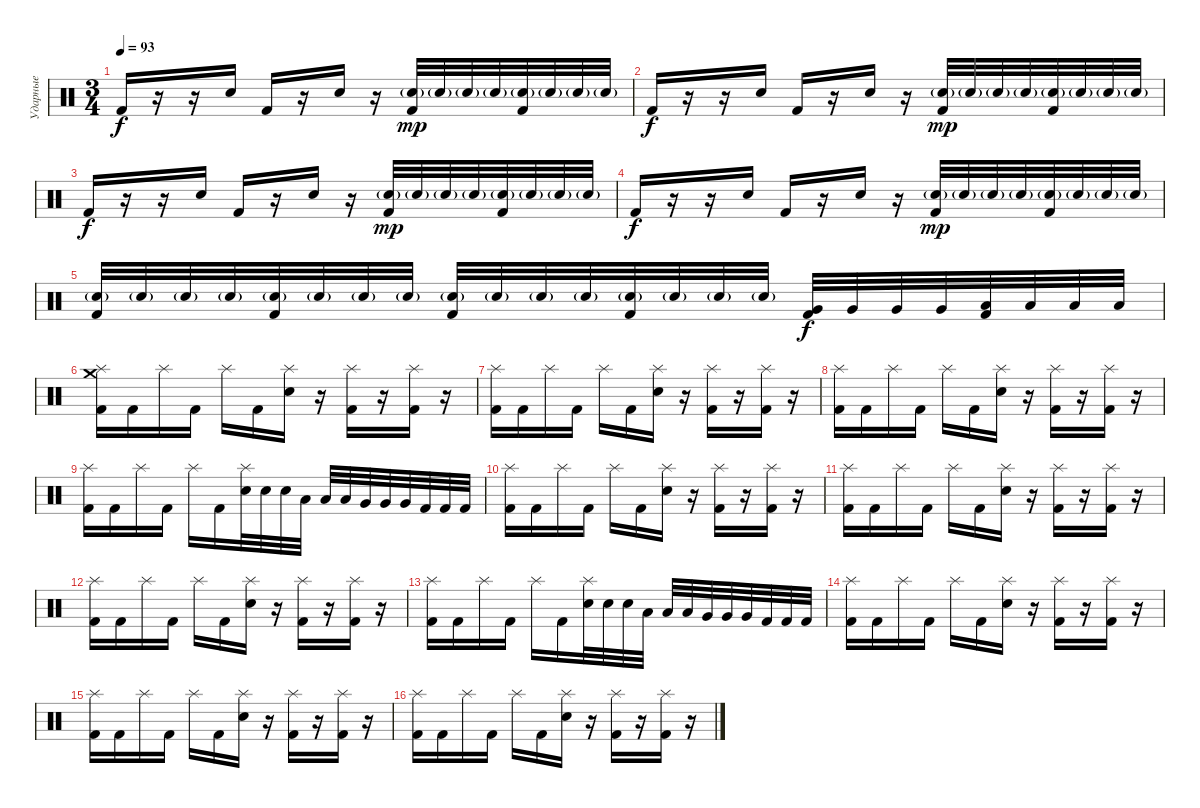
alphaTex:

\track ("Ударные" "Ударные") {instrument percussion}
\staff {score}
\articulation defaults
\ts (3 4)
\tempo 93
\clef neutral
\ks c "Kick (hit) 2".16{dy f}
r.16 r.16 "Electric Snare (hit)".16 "Kick (hit) 2".16 r.16 "Electric Snare (hit)".16 r.16 ("Electric Snare (hit)"{g} "Kick (hit) 2").32{dy mp} "Electric Snare (hit)"{g}.32 "Electric Snare (hit)"{g}.32 "Electric Snare (hit)"{g}.32 ("Electric Snare (hit)"{g} "Kick (hit) 2").32 "Electric Snare (hit)"{g}.32 "Electric Snare (hit)"{g}.32 "Electric Snare (hit)"{g}.32 |
"Kick (hit) 2".16{dy f} r.16 r.16 "Electric Snare (hit)".16 "Kick (hit) 2".16 r.16 "Electric Snare (hit)".16 r.16 ("Electric Snare (hit)"{g} "Kick (hit) 2").32{dy mp} "Electric Snare (hit)"{g}.32 "Electric Snare (hit)"{g}.32 "Electric Snare (hit)"{g}.32 ("Electric Snare (hit)"{g} "Kick (hit) 2").32 "Electric Snare (hit)"{g}.32 "Electric Snare (hit)"{g}.32 "Electric Snare (hit)"{g}.32 |
"Kick (hit) 2".16{dy f} r.16 r.16 "Electric Snare (hit)".16 "Kick (hit) 2".16 r.16 "Electric Snare (hit)".16 r.16 ("Electric Snare (hit)"{g} "Kick (hit) 2").32{dy mp} "Electric Snare (hit)"{g}.32 "Electric Snare (hit)"{g}.32 "Electric Snare (hit)"{g}.32 ("Electric Snare (hit)"{g} "Kick (hit) 2").32 "Electric Snare (hit)"{g}.32 "Electric Snare (hit)"{g}.32 "Electric Snare (hit)"{g}.32 |
"Kick (hit) 2".16{dy f} r.16 r.16 "Electric Snare (hit)".16 "Kick (hit) 2".16 r.16 "Electric Snare (hit)".16 r.16 ("Electric Snare (hit)"{g} "Kick (hit) 2").32{dy mp} "Electric Snare (hit)"{g}.32 "Electric Snare (hit)"{g}.32 "Electric Snare (hit)"{g}.32 ("Electric Snare (hit)"{g} "Kick (hit) 2").32 "Electric Snare (hit)"{g}.32 "Electric Snare (hit)"{g}.32 "Electric Snare (hit)"{g}.32 |
("Electric Snare (hit)"{g} "Kick (hit) 2").32 "Electric Snare (hit)"{g}.32 "Electric Snare (hit)"{g}.32 "Electric Snare (hit)"{g}.32 ("Electric Snare (hit)"{g} "Kick (hit) 2").32 "Electric Snare (hit)"{g}.32 "Electric Snare (hit)"{g}.32 "Electric Snare (hit)"{g}.32 ("Electric Snare (hit)"{g} "Kick (hit) 2").32 "Electric Snare (hit)"{g}.32 "Electric Snare (hit)"{g}.32 "Electric Snare (hit)"{g}.32 ("Electric Snare (hit)"{g} "Kick (hit) 2").32 "Electric Snare (hit)"{g}.32 "Electric Snare (hit)"{g}.32 "Electric Snare (hit)"{g}.32 ("Very Low Tom (hit)" "Kick (hit) 2").32{dy f} "Very Low Tom (hit)".32 "Very Low Tom (hit)".32 "Very Low Tom (hit)".32 ("Low Floor Tom (hit)" "Kick (hit) 2").32 "Low Floor Tom (hit)".32 "Low Floor Tom (hit)".32 "Low Floor Tom (hit)".32 |
("Splash (hit)" "Crash medium (hit)" "Kick (hit) 2").16 "Kick (hit) 2".16 "Splash (hit)".16 "Kick (hit) 2".16 "Splash (hit)".16 "Kick (hit) 2".16 ("Splash (hit)" "Electric Snare (hit)").16 r.16 ("Splash (hit)" "Kick (hit) 2").16 r.16 ("Splash (hit)" "Kick (hit) 2").16 r.16 |
("Splash (hit)" "Kick (hit) 2").16 "Kick (hit) 2".16 "Splash (hit)".16 "Kick (hit) 2".16 "Splash (hit)".16 "Kick (hit) 2".16 ("Splash (hit)" "Electric Snare (hit)").16 r.16 ("Splash (hit)" "Kick (hit) 2").16 r.16 ("Splash (hit)" "Kick (hit) 2").16 r.16 |
("Splash (hit)" "Kick (hit) 2").16 "Kick (hit) 2".16 "Splash (hit)".16 "Kick (hit) 2".16 "Splash (hit)".16 "Kick (hit) 2".16 ("Splash (hit)" "Electric Snare (hit)").16 r.16 ("Splash (hit)" "Kick (hit) 2").16 r.16 ("Splash (hit)" "Kick (hit) 2").16 r.16 |
("Splash (hit)" "Kick (hit) 2").16 "Kick (hit) 2".16 "Splash (hit)".16 "Kick (hit) 2".16 "Splash (hit)".16 "Kick (hit) 2".16 ("Splash (hit)" "Electric Snare (hit)").32 "Electric Snare (hit)".32 "Electric Snare (hit)".32 "Low Tom (hit)".32 "Low Tom (hit)".32 "Low Tom (hit)".32 "Very Low Tom (hit)".32 "Very Low Tom (hit)".32 "Very Low Tom (hit)".32 "Kick (hit) 2".32 "Kick (hit) 2".32 "Kick (hit) 2".32 |
("Splash (hit)" "Kick (hit) 2").16 "Kick (hit) 2".16 "Splash (hit)".16 "Kick (hit) 2".16 "Splash (hit)".16 "Kick (hit) 2".16 ("Splash (hit)" "Electric Snare (hit)").16 r.16 ("Splash (hit)" "Kick (hit) 2").16 r.16 ("Splash (hit)" "Kick (hit) 2").16 r.16 |
("Splash (hit)" "Kick (hit) 2").16 "Kick (hit) 2".16 "Splash (hit)".16 "Kick (hit) 2".16 "Splash (hit)".16 "Kick (hit) 2".16 ("Splash (hit)" "Electric Snare (hit)").16 r.16 ("Splash (hit)" "Kick (hit) 2").16 r.16 ("Splash (hit)" "Kick (hit) 2").16 r.16 |
("Splash (hit)" "Kick (hit) 2").16 "Kick (hit) 2".16 "Splash (hit)".16 "Kick (hit) 2".16 "Splash (hit)".16 "Kick (hit) 2".16 ("Splash (hit)" "Electric Snare (hit)").16 r.16 ("Splash (hit)" "Kick (hit) 2").16 r.16 ("Splash (hit)" "Kick (hit) 2").16 r.16 |
("Splash (hit)" "Kick (hit) 2").16 "Kick (hit) 2".16 "Splash (hit)".16 "Kick (hit) 2".16 "Splash (hit)".16 "Kick (hit) 2".16 ("Splash (hit)" "Electric Snare (hit)").32 "Electric Snare (hit)".32 "Electric Snare (hit)".32 "Low Tom (hit)".32 "Low Tom (hit)".32 "Low Tom (hit)".32 "Very Low Tom (hit)".32 "Very Low Tom (hit)".32 "Very Low Tom (hit)".32 "Kick (hit) 2".32 "Kick (hit) 2".32 "Kick (hit) 2".32 |
("Splash (hit)" "Kick (hit) 2").16 "Kick (hit) 2".16 "Splash (hit)".16 "Kick (hit) 2".16 "Splash (hit)".16 "Kick (hit) 2".16 ("Splash (hit)" "Electric Snare (hit)").16 r.16 ("Splash (hit)" "Kick (hit) 2").16 r.16 ("Splash (hit)" "Kick (hit) 2").16 r.16 |
("Splash (hit)" "Kick (hit) 2").16 "Kick (hit) 2".16 "Splash (hit)".16 "Kick (hit) 2".16 "Splash (hit)".16 "Kick (hit) 2".16 ("Splash (hit)" "Electric Snare (hit)").16 r.16 ("Splash (hit)" "Kick (hit) 2").16 r.16 ("Splash (hit)" "Kick (hit) 2").16 r.16 |
("Splash (hit)" "Kick (hit) 2").16 "Kick (hit) 2".16 "Splash (hit)".16 "Kick (hit) 2".16 "Splash (hit)".16 "Kick (hit) 2".16 ("Splash (hit)" "Electric Snare (hit)").16 r.16 ("Splash (hit)" "Kick (hit) 2").16 r.16 ("Splash (hit)" "Kick (hit) 2").16 r.16
